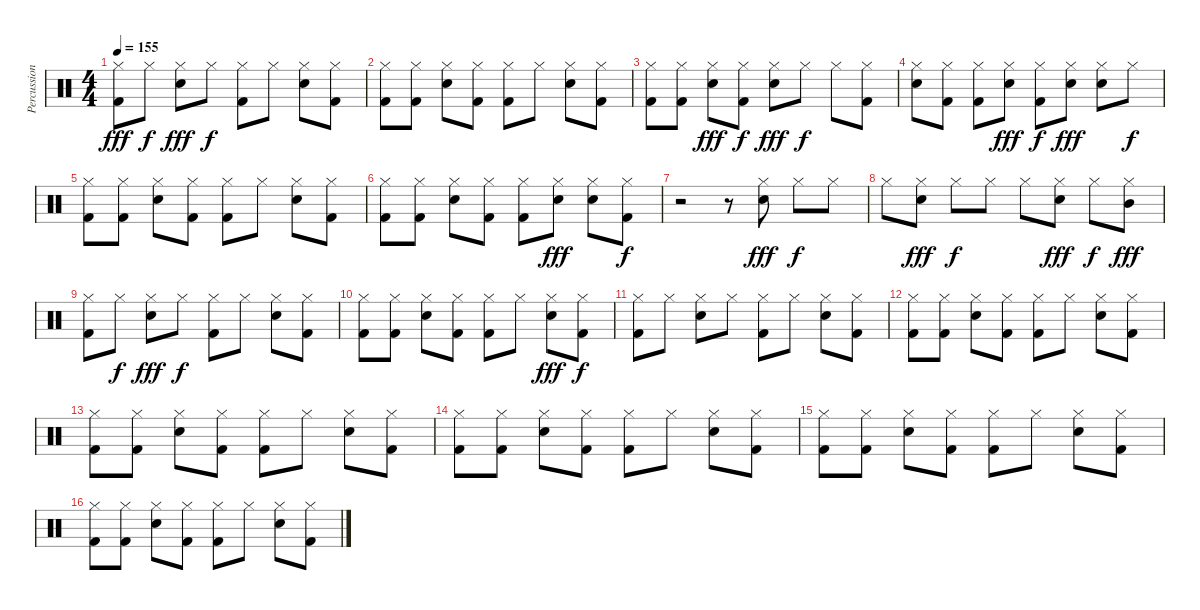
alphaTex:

\track ("Percussions" "Percussion") {instrument percussion}
\staff {score}
\articulation defaults
\ts (4 4)
\tempo 155
\clef neutral
\ks c
("Hi-Hat (closed)" "Kick (hit) 2").8{dy fff} "Hi-Hat (closed)".8{dy f} ("Hi-Hat (closed)" "Electric Snare (hit)").8{dy fff} "Hi-Hat (closed)".8{dy f} ("Hi-Hat (closed)" "Kick (hit) 2").8 "Hi-Hat (closed)".8 ("Hi-Hat (closed)" "Electric Snare (hit)").8 ("Hi-Hat (closed)" "Kick (hit) 2").8 |
("Hi-Hat (closed)" "Kick (hit) 2").8 ("Hi-Hat (closed)" "Kick (hit) 2").8 ("Hi-Hat (closed)" "Electric Snare (hit)").8 ("Hi-Hat (closed)" "Kick (hit) 2").8 ("Hi-Hat (closed)" "Kick (hit) 2").8 "Hi-Hat (closed)".8 ("Hi-Hat (closed)" "Electric Snare (hit)").8 ("Hi-Hat (closed)" "Kick (hit) 2").8 |
("Hi-Hat (closed)" "Kick (hit) 2").8 ("Hi-Hat (closed)" "Kick (hit) 2").8 ("Hi-Hat (closed)" "Electric Snare (hit)").8{dy fff} ("Hi-Hat (closed)" "Kick (hit) 2").8{dy f} ("Hi-Hat (closed)" "Electric Snare (hit)").8{dy fff} "Hi-Hat (closed)".8{dy f} "Hi-Hat (closed)".8 ("Hi-Hat (closed)" "Kick (hit) 2").8 |
("Hi-Hat (closed)" "Electric Snare (hit)").8 ("Hi-Hat (closed)" "Kick (hit) 2").8 ("Hi-Hat (closed)" "Kick (hit) 2").8 ("Hi-Hat (closed)" "Electric Snare (hit)").8{dy fff} ("Hi-Hat (closed)" "Kick (hit) 2").8{dy f} ("Hi-Hat (closed)" "Electric Snare (hit)").8{dy fff} ("Hi-Hat (closed)" "Electric Snare (hit)").8 "Hi-Hat (closed)".8{dy f} |
("Hi-Hat (closed)" "Kick (hit) 2").8 ("Hi-Hat (closed)" "Kick (hit) 2").8 ("Hi-Hat (closed)" "Electric Snare (hit)").8 ("Hi-Hat (closed)" "Kick (hit) 2").8 ("Hi-Hat (closed)" "Kick (hit) 2").8 "Hi-Hat (closed)".8 ("Hi-Hat (closed)" "Electric Snare (hit)").8 ("Hi-Hat (closed)" "Kick (hit) 2").8 |
("Hi-Hat (closed)" "Kick (hit) 2").8 ("Hi-Hat (closed)" "Kick (hit) 2").8 ("Hi-Hat (closed)" "Electric Snare (hit)").8 ("Hi-Hat (closed)" "Kick (hit) 2").8 ("Hi-Hat (closed)" "Kick (hit) 2").8 ("Hi-Hat (closed)" "Electric Snare (hit)").8{dy fff} ("Hi-Hat (closed)" "Electric Snare (hit)").8 ("Hi-Hat (closed)" "Kick (hit) 2").8{dy f} |
r.2 r.8 ("Electric Snare (hit)" "Hi-Hat (closed)").8{dy fff} "Hi-Hat (closed)".8{dy f} "Hi-Hat (closed)".8 |
"Hi-Hat (closed)".8 ("Electric Snare (hit)" "Hi-Hat (closed)").8{dy fff} "Hi-Hat (closed)".8{dy f} "Hi-Hat (closed)".8 "Hi-Hat (closed)".8 ("Electric Snare (hit)" "Hi-Hat (closed)").8{dy fff} "Hi-Hat (closed)".8{dy f} ("Hi-Hat (closed)" "Mid Tom (hit)").8{dy fff} |
("Hi-Hat (closed)" "Kick (hit) 2").8 "Hi-Hat (closed)".8{dy f} ("Hi-Hat (closed)" "Electric Snare (hit)").8{dy fff} "Hi-Hat (closed)".8{dy f} ("Hi-Hat (closed)" "Kick (hit) 2").8 "Hi-Hat (closed)".8 ("Hi-Hat (closed)" "Electric Snare (hit)").8 ("Hi-Hat (closed)" "Kick (hit) 2").8 |
("Hi-Hat (closed)" "Kick (hit) 2").8 ("Hi-Hat (closed)" "Kick (hit) 2").8 ("Hi-Hat (closed)" "Electric Snare (hit)").8 ("Hi-Hat (closed)" "Kick (hit) 2").8 ("Hi-Hat (closed)" "Kick (hit) 2").8 "Hi-Hat (closed)".8 ("Hi-Hat (closed)" "Electric Snare (hit)").8{dy fff} ("Hi-Hat (closed)" "Kick (hit) 2").8{dy f} |
("Hi-Hat (closed)" "Kick (hit) 2").8 "Hi-Hat (closed)".8 ("Hi-Hat (closed)" "Electric Snare (hit)").8 "Hi-Hat (closed)".8 ("Hi-Hat (closed)" "Kick (hit) 2").8 "Hi-Hat (closed)".8 ("Hi-Hat (closed)" "Electric Snare (hit)").8 ("Hi-Hat (closed)" "Kick (hit) 2").8 |
("Hi-Hat (closed)" "Kick (hit) 2").8 ("Hi-Hat (closed)" "Kick (hit) 2").8 ("Hi-Hat (closed)" "Electric Snare (hit)").8 ("Hi-Hat (closed)" "Kick (hit) 2").8 ("Hi-Hat (closed)" "Kick (hit) 2").8 "Hi-Hat (closed)".8 ("Hi-Hat (closed)" "Electric Snare (hit)").8 ("Hi-Hat (closed)" "Kick (hit) 2").8 |
("Hi-Hat (closed)" "Kick (hit) 2").8 ("Hi-Hat (closed)" "Kick (hit) 2").8 ("Hi-Hat (closed)" "Electric Snare (hit)").8 ("Hi-Hat (closed)" "Kick (hit) 2").8 ("Hi-Hat (closed)" "Kick (hit) 2").8 "Hi-Hat (closed)".8 ("Hi-Hat (closed)" "Electric Snare (hit)").8 ("Hi-Hat (closed)" "Kick (hit) 2").8 |
("Hi-Hat (closed)" "Kick (hit) 2").8 ("Hi-Hat (closed)" "Kick (hit) 2").8 ("Hi-Hat (closed)" "Electric Snare (hit)").8 ("Hi-Hat (closed)" "Kick (hit) 2").8 ("Hi-Hat (closed)" "Kick (hit) 2").8 "Hi-Hat (closed)".8 ("Hi-Hat (closed)" "Electric Snare (hit)").8 ("Hi-Hat (closed)" "Kick (hit) 2").8 |
("Hi-Hat (closed)" "Kick (hit) 2").8 ("Hi-Hat (closed)" "Kick (hit) 2").8 ("Hi-Hat (closed)" "Electric Snare (hit)").8 ("Hi-Hat (closed)" "Kick (hit) 2").8 ("Hi-Hat (closed)" "Kick (hit) 2").8 "Hi-Hat (closed)".8 ("Hi-Hat (closed)" "Electric Snare (hit)").8 ("Hi-Hat (closed)" "Kick (hit) 2").8 |
("Hi-Hat (closed)" "Kick (hit) 2").8 ("Hi-Hat (closed)" "Kick (hit) 2").8 ("Hi-Hat (closed)" "Electric Snare (hit)").8 ("Hi-Hat (closed)" "Kick (hit) 2").8 ("Hi-Hat (closed)" "Kick (hit) 2").8 "Hi-Hat (closed)".8 ("Hi-Hat (closed)" "Electric Snare (hit)").8 ("Hi-Hat (closed)" "Kick (hit) 2").8
